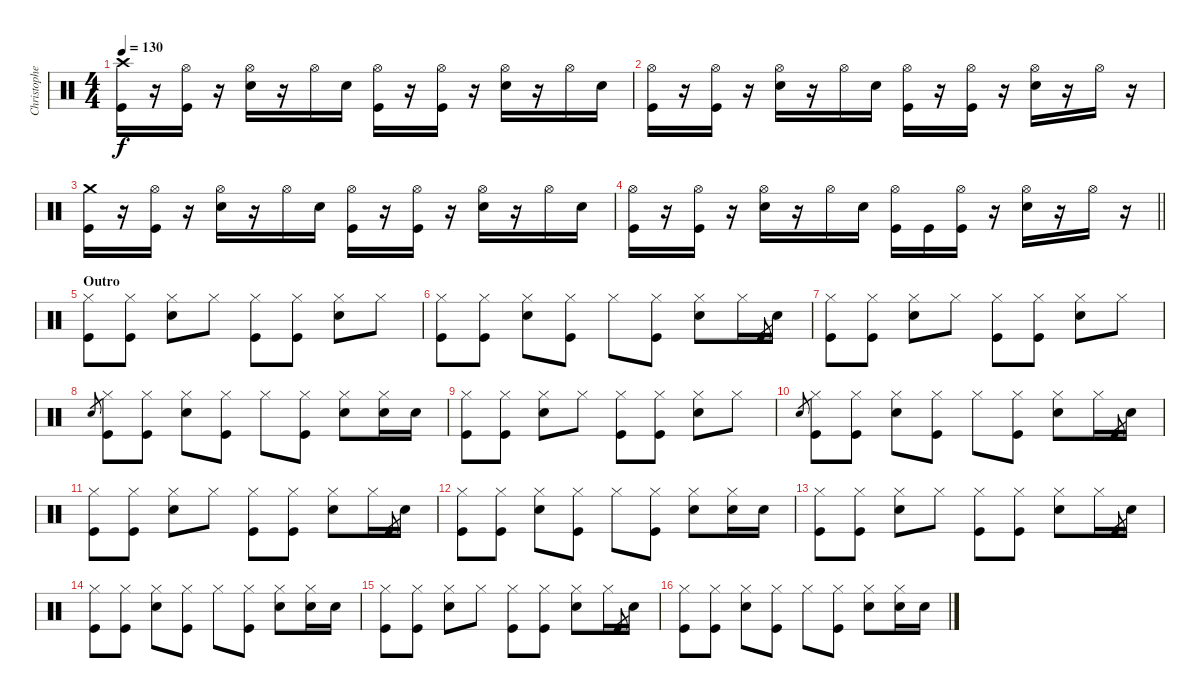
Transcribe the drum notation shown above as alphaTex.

\track ("Christopher - Drums" "Christophe") {instrument percussion}
\staff {score}
\articulation defaults
\ts (4 4)
\tempo 130
\clef neutral
\ks c
("Crash high (hit)" "Kick (hit)").16{dy f} r.16 ("Hi-Hat (open)" "Kick (hit)").16 r.16 ("Hi-Hat (open)" "Snare (hit) 2").16 r.16 "Hi-Hat (open)".16 "Snare (hit) 2".16 ("Hi-Hat (open)" "Kick (hit)").16 r.16 ("Hi-Hat (open)" "Kick (hit)").16 r.16 ("Hi-Hat (open)" "Snare (hit) 2").16 r.16 "Hi-Hat (open)".16 "Snare (hit) 2".16 |
("Hi-Hat (open)" "Kick (hit)").16 r.16 ("Hi-Hat (open)" "Kick (hit)").16 r.16 ("Hi-Hat (open)" "Snare (hit) 2").16 r.16 "Hi-Hat (open)".16 "Snare (hit) 2".16 ("Hi-Hat (open)" "Kick (hit)").16 r.16 ("Hi-Hat (open)" "Kick (hit)").16 r.16 ("Hi-Hat (open)" "Snare (hit) 2").16 r.16 "Hi-Hat (open)".16 r.16 |
("Crash medium (hit)" "Kick (hit)").16 r.16 ("Hi-Hat (open)" "Kick (hit)").16 r.16 ("Hi-Hat (open)" "Snare (hit) 2").16 r.16 "Hi-Hat (open)".16 "Snare (hit) 2".16 ("Hi-Hat (open)" "Kick (hit)").16 r.16 ("Hi-Hat (open)" "Kick (hit)").16 r.16 ("Hi-Hat (open)" "Snare (hit) 2").16 r.16 "Hi-Hat (open)".16 "Snare (hit) 2".16 |
\barLineRight lightlight
("Hi-Hat (open)" "Kick (hit)").16 r.16 ("Hi-Hat (open)" "Kick (hit)").16 r.16 ("Hi-Hat (open)" "Snare (hit) 2").16 r.16 "Hi-Hat (open)".16 "Snare (hit) 2".16 ("Hi-Hat (open)" "Kick (hit)").16 "Kick (hit)".16 ("Hi-Hat (open)" "Kick (hit)").16 r.16 ("Hi-Hat (open)" "Snare (hit) 2").16 r.16 "Hi-Hat (open)".16 r.16 |
\section ("" "Outro")
("Hi-Hat (closed)" "Kick (hit)").8 ("Hi-Hat (closed)" "Kick (hit)").8 ("Hi-Hat (closed)" "Snare (hit) 2").8 "Hi-Hat (closed)".8 ("Hi-Hat (closed)" "Kick (hit)").8 ("Hi-Hat (closed)" "Kick (hit)").8 ("Hi-Hat (closed)" "Snare (hit) 2").8 "Hi-Hat (closed)".8 |
("Hi-Hat (closed)" "Kick (hit)").8 ("Hi-Hat (closed)" "Kick (hit)").8 ("Hi-Hat (closed)" "Snare (hit) 2").8 ("Hi-Hat (closed)" "Kick (hit)").8 "Hi-Hat (closed)".8 ("Hi-Hat (closed)" "Kick (hit)").8 ("Hi-Hat (closed)" "Snare (hit) 2").8 "Hi-Hat (closed)".16 "Kick (hit)".8{gr} "Snare (hit) 2".16 |
("Hi-Hat (closed)" "Kick (hit)").8 ("Hi-Hat (closed)" "Kick (hit)").8 ("Hi-Hat (closed)" "Snare (hit) 2").8 "Hi-Hat (closed)".8 ("Hi-Hat (closed)" "Kick (hit)").8 ("Hi-Hat (closed)" "Kick (hit)").8 ("Hi-Hat (closed)" "Snare (hit) 2").8 "Hi-Hat (closed)".8 |
"Snare (hit) 2".8{gr} ("Hi-Hat (closed)" "Kick (hit)").8 ("Hi-Hat (closed)" "Kick (hit)").8 ("Hi-Hat (closed)" "Snare (hit) 2").8 ("Hi-Hat (closed)" "Kick (hit)").8 "Hi-Hat (closed)".8 ("Hi-Hat (closed)" "Kick (hit)").8 ("Hi-Hat (closed)" "Snare (hit) 2").8 ("Hi-Hat (closed)" "Snare (hit) 2").16 "Snare (hit) 2".16 |
("Hi-Hat (closed)" "Kick (hit)").8 ("Hi-Hat (closed)" "Kick (hit)").8 ("Hi-Hat (closed)" "Snare (hit) 2").8 "Hi-Hat (closed)".8 ("Hi-Hat (closed)" "Kick (hit)").8 ("Hi-Hat (closed)" "Kick (hit)").8 ("Hi-Hat (closed)" "Snare (hit) 2").8 "Hi-Hat (closed)".8 |
"Snare (hit) 2".8{gr} ("Hi-Hat (closed)" "Kick (hit)").8 ("Hi-Hat (closed)" "Kick (hit)").8 ("Hi-Hat (closed)" "Snare (hit) 2").8 ("Hi-Hat (closed)" "Kick (hit)").8 "Hi-Hat (closed)".8 ("Hi-Hat (closed)" "Kick (hit)").8 ("Hi-Hat (closed)" "Snare (hit) 2").8 "Hi-Hat (closed)".16 "Kick (hit)".8{gr} "Snare (hit) 2".16 |
("Hi-Hat (closed)" "Kick (hit)").8 ("Hi-Hat (closed)" "Kick (hit)").8 ("Hi-Hat (closed)" "Snare (hit) 2").8 "Hi-Hat (closed)".8 ("Hi-Hat (closed)" "Kick (hit)").8 ("Hi-Hat (closed)" "Kick (hit)").8 ("Hi-Hat (closed)" "Snare (hit) 2").8 "Hi-Hat (closed)".16 "Kick (hit)".8{gr} "Snare (hit) 2".16 |
("Hi-Hat (closed)" "Kick (hit)").8 ("Hi-Hat (closed)" "Kick (hit)").8 ("Hi-Hat (closed)" "Snare (hit) 2").8 ("Hi-Hat (closed)" "Kick (hit)").8 "Hi-Hat (closed)".8 ("Hi-Hat (closed)" "Kick (hit)").8 ("Hi-Hat (closed)" "Snare (hit) 2").8 ("Hi-Hat (closed)" "Snare (hit) 2").16 "Snare (hit) 2".16 |
("Hi-Hat (closed)" "Kick (hit)").8 ("Hi-Hat (closed)" "Kick (hit)").8 ("Hi-Hat (closed)" "Snare (hit) 2").8 "Hi-Hat (closed)".8 ("Hi-Hat (closed)" "Kick (hit)").8 ("Hi-Hat (closed)" "Kick (hit)").8 ("Hi-Hat (closed)" "Snare (hit) 2").8 "Hi-Hat (closed)".16 "Kick (hit)".8{gr} "Snare (hit) 2".16 |
("Hi-Hat (closed)" "Kick (hit)").8 ("Hi-Hat (closed)" "Kick (hit)").8 ("Hi-Hat (closed)" "Snare (hit) 2").8 ("Hi-Hat (closed)" "Kick (hit)").8 "Hi-Hat (closed)".8 ("Hi-Hat (closed)" "Kick (hit)").8 ("Hi-Hat (closed)" "Snare (hit) 2").8 ("Hi-Hat (closed)" "Snare (hit) 2").16 "Snare (hit) 2".16 |
("Hi-Hat (closed)" "Kick (hit)").8 ("Hi-Hat (closed)" "Kick (hit)").8 ("Hi-Hat (closed)" "Snare (hit) 2").8 "Hi-Hat (closed)".8 ("Hi-Hat (closed)" "Kick (hit)").8 ("Hi-Hat (closed)" "Kick (hit)").8 ("Hi-Hat (closed)" "Snare (hit) 2").8 "Hi-Hat (closed)".16 "Kick (hit)".8{gr} "Snare (hit) 2".16 |
("Hi-Hat (closed)" "Kick (hit)").8 ("Hi-Hat (closed)" "Kick (hit)").8 ("Hi-Hat (closed)" "Snare (hit) 2").8 ("Hi-Hat (closed)" "Kick (hit)").8 "Hi-Hat (closed)".8 ("Hi-Hat (closed)" "Kick (hit)").8 ("Hi-Hat (closed)" "Snare (hit) 2").8 ("Hi-Hat (closed)" "Snare (hit) 2").16 "Snare (hit) 2".16
